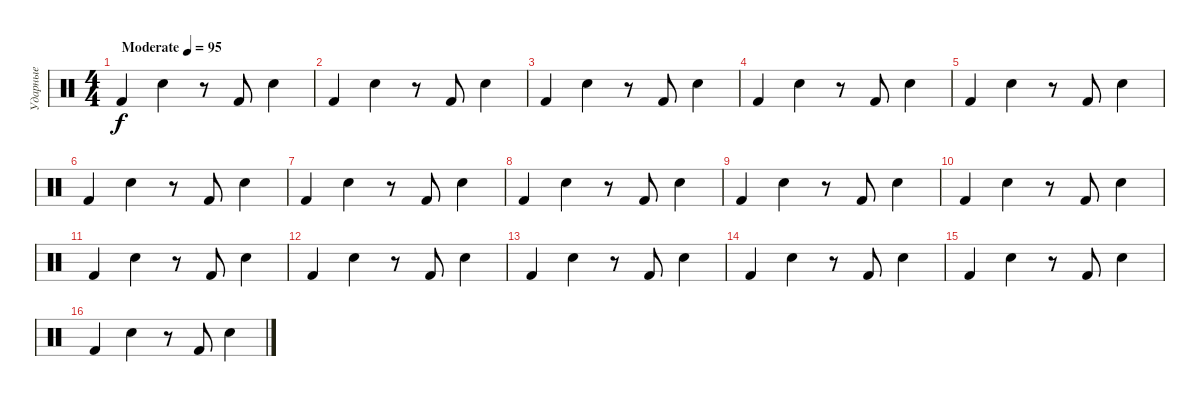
\track ("Ударные" "Ударные") {instrument percussion}
\staff {score}
\articulation defaults
\ts (4 4)
\tempo (95 "Moderate")
\clef neutral
\ks c "Kick (hit) 2".4{dy f} "Snare (hit) 2".4
r.8 "Kick (hit) 2".8 "Snare (hit) 2".4 |
"Kick (hit) 2".4 "Snare (hit) 2".4 r.8 "Kick (hit) 2".8 "Snare (hit) 2".4 |
"Kick (hit) 2".4 "Snare (hit) 2".4 r.8 "Kick (hit) 2".8 "Snare (hit) 2".4 |
"Kick (hit) 2".4 "Snare (hit) 2".4 r.8 "Kick (hit) 2".8 "Snare (hit) 2".4 |
"Kick (hit) 2".4 "Snare (hit) 2".4 r.8 "Kick (hit) 2".8 "Snare (hit) 2".4 |
"Kick (hit) 2".4 "Snare (hit) 2".4 r.8 "Kick (hit) 2".8 "Snare (hit) 2".4 |
"Kick (hit) 2".4 "Snare (hit) 2".4 r.8 "Kick (hit) 2".8 "Snare (hit) 2".4 |
"Kick (hit) 2".4 "Snare (hit) 2".4 r.8 "Kick (hit) 2".8 "Snare (hit) 2".4 |
"Kick (hit) 2".4 "Snare (hit) 2".4 r.8 "Kick (hit) 2".8 "Snare (hit) 2".4 |
"Kick (hit) 2".4 "Snare (hit) 2".4 r.8 "Kick (hit) 2".8 "Snare (hit) 2".4 |
"Kick (hit) 2".4 "Snare (hit) 2".4 r.8 "Kick (hit) 2".8 "Snare (hit) 2".4 |
"Kick (hit) 2".4 "Snare (hit) 2".4 r.8 "Kick (hit) 2".8 "Snare (hit) 2".4 |
"Kick (hit) 2".4 "Snare (hit) 2".4 r.8 "Kick (hit) 2".8 "Snare (hit) 2".4 |
"Kick (hit) 2".4 "Snare (hit) 2".4 r.8 "Kick (hit) 2".8 "Snare (hit) 2".4 |
"Kick (hit) 2".4 "Snare (hit) 2".4 r.8 "Kick (hit) 2".8 "Snare (hit) 2".4 |
"Kick (hit) 2".4 "Snare (hit) 2".4 r.8 "Kick (hit) 2".8 "Snare (hit) 2".4
